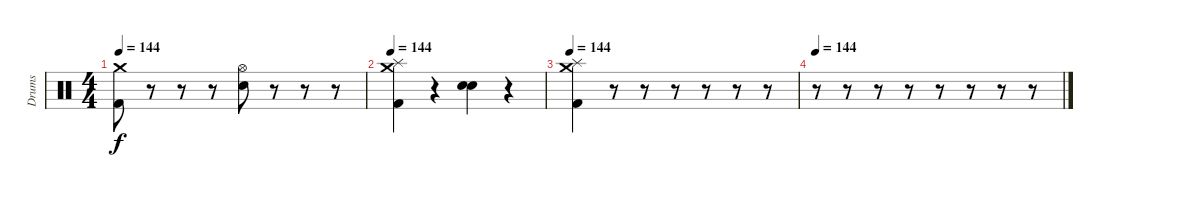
\track ("Drums" "Drums") {instrument percussion}
\staff {score}
\articulation defaults
\ts (4 4)
\tempo 144
\clef neutral
\ks c
("Crash medium (hit)" "Kick (hit) 2").8{dy f} r.8 r.8 r.8 ("Hi-Hat (open)" "Electric Snare (hit)").8 r.8 r.8 r.8 |
\tempo 144
("Crash medium (hit)" "Splash (hit)" "Kick (hit) 2").4 r.4 ("Electric Snare (hit)" "Electric Snare (hit)").4 r.4 |
\tempo 144
("Crash medium (hit)" "Splash (hit)" "Kick (hit) 2").4 r.8 r.8 r.8 r.8 r.8 r.8 |
\tempo 144
r.8 r.8 r.8 r.8 r.8 r.8 r.8 r.8
